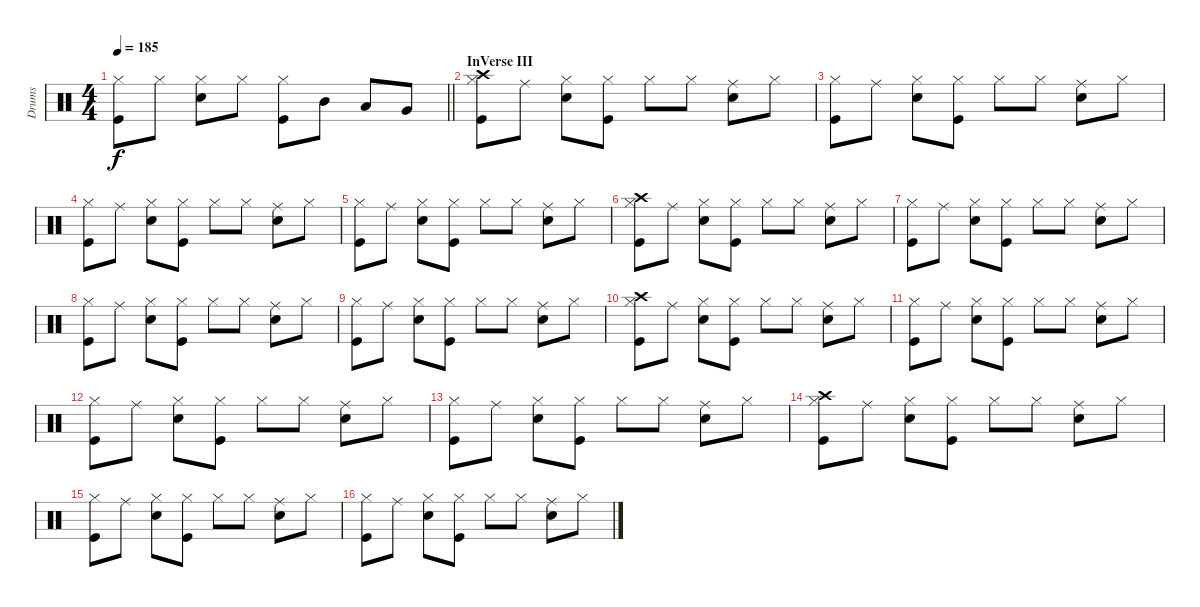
\track ("Drums" "Drums") {instrument percussion}
\staff {score}
\articulation defaults
\ts (4 4)
\tempo 185
\clef neutral
\barLineRight lightlight
\ks c
("Kick (hit)" "Hi-Hat (closed)").8{dy f} "Hi-Hat (closed)".8 ("Snare (hit) 2" "Hi-Hat (closed)").8 "Hi-Hat (closed)".8 ("Kick (hit)" "Hi-Hat (closed)").8 "Mid Tom (hit)".8 "Low Tom (hit)".8 "Very Low Tom (hit)".8 |
\section ("" "InVerse III")
("Kick (hit)" "Crash high (hit)" "Hi-Hat (closed)").8 "Ride (middle)".8 ("Snare (hit) 2" "Hi-Hat (closed)").8 ("Kick (hit)" "Hi-Hat (closed)").8 "Hi-Hat (closed)".8 "Hi-Hat (closed)".8 ("Snare (hit) 2" "Ride (middle)").8 "Hi-Hat (closed)".8 |
("Kick (hit)" "Hi-Hat (closed)").8 "Ride (middle)".8 ("Snare (hit) 2" "Hi-Hat (closed)").8 ("Kick (hit)" "Hi-Hat (closed)").8 "Hi-Hat (closed)".8 "Hi-Hat (closed)".8 ("Snare (hit) 2" "Ride (middle)").8 "Hi-Hat (closed)".8 |
("Kick (hit)" "Hi-Hat (closed)").8 "Ride (middle)".8 ("Snare (hit) 2" "Hi-Hat (closed)").8 ("Kick (hit)" "Hi-Hat (closed)").8 "Hi-Hat (closed)".8 "Hi-Hat (closed)".8 ("Snare (hit) 2" "Ride (middle)").8 "Hi-Hat (closed)".8 |
("Kick (hit)" "Hi-Hat (closed)").8 "Ride (middle)".8 ("Snare (hit) 2" "Hi-Hat (closed)").8 ("Kick (hit)" "Hi-Hat (closed)").8 "Hi-Hat (closed)".8 "Hi-Hat (closed)".8 ("Snare (hit) 2" "Ride (middle)").8 "Hi-Hat (closed)".8 |
("Kick (hit)" "Crash high (hit)" "Hi-Hat (closed)").8 "Ride (middle)".8 ("Snare (hit) 2" "Hi-Hat (closed)").8 ("Kick (hit)" "Hi-Hat (closed)").8 "Hi-Hat (closed)".8 "Hi-Hat (closed)".8 ("Snare (hit) 2" "Ride (middle)").8 "Hi-Hat (closed)".8 |
("Kick (hit)" "Hi-Hat (closed)").8 "Ride (middle)".8 ("Snare (hit) 2" "Hi-Hat (closed)").8 ("Kick (hit)" "Hi-Hat (closed)").8 "Hi-Hat (closed)".8 "Hi-Hat (closed)".8 ("Snare (hit) 2" "Ride (middle)").8 "Hi-Hat (closed)".8 |
("Kick (hit)" "Hi-Hat (closed)").8 "Ride (middle)".8 ("Snare (hit) 2" "Hi-Hat (closed)").8 ("Kick (hit)" "Hi-Hat (closed)").8 "Hi-Hat (closed)".8 "Hi-Hat (closed)".8 ("Snare (hit) 2" "Ride (middle)").8 "Hi-Hat (closed)".8 |
("Kick (hit)" "Hi-Hat (closed)").8 "Ride (middle)".8 ("Snare (hit) 2" "Hi-Hat (closed)").8 ("Kick (hit)" "Hi-Hat (closed)").8 "Hi-Hat (closed)".8 "Hi-Hat (closed)".8 ("Snare (hit) 2" "Ride (middle)").8 "Hi-Hat (closed)".8 |
("Kick (hit)" "Crash high (hit)" "Hi-Hat (closed)").8 "Ride (middle)".8 ("Snare (hit) 2" "Hi-Hat (closed)").8 ("Kick (hit)" "Hi-Hat (closed)").8 "Hi-Hat (closed)".8 "Hi-Hat (closed)".8 ("Snare (hit) 2" "Ride (middle)").8 "Hi-Hat (closed)".8 |
("Kick (hit)" "Hi-Hat (closed)").8 "Ride (middle)".8 ("Snare (hit) 2" "Hi-Hat (closed)").8 ("Kick (hit)" "Hi-Hat (closed)").8 "Hi-Hat (closed)".8 "Hi-Hat (closed)".8 ("Snare (hit) 2" "Ride (middle)").8 "Hi-Hat (closed)".8 |
("Kick (hit)" "Hi-Hat (closed)").8 "Ride (middle)".8 ("Snare (hit) 2" "Hi-Hat (closed)").8 ("Kick (hit)" "Hi-Hat (closed)").8 "Hi-Hat (closed)".8 "Hi-Hat (closed)".8 ("Snare (hit) 2" "Ride (middle)").8 "Hi-Hat (closed)".8 |
("Kick (hit)" "Hi-Hat (closed)").8 "Ride (middle)".8 ("Snare (hit) 2" "Hi-Hat (closed)").8 ("Kick (hit)" "Hi-Hat (closed)").8 "Hi-Hat (closed)".8 "Hi-Hat (closed)".8 ("Snare (hit) 2" "Ride (middle)").8 "Hi-Hat (closed)".8 |
("Kick (hit)" "Crash high (hit)" "Hi-Hat (closed)").8 "Ride (middle)".8 ("Snare (hit) 2" "Hi-Hat (closed)").8 ("Kick (hit)" "Hi-Hat (closed)").8 "Hi-Hat (closed)".8 "Hi-Hat (closed)".8 ("Snare (hit) 2" "Ride (middle)").8 "Hi-Hat (closed)".8 |
("Kick (hit)" "Hi-Hat (closed)").8 "Ride (middle)".8 ("Snare (hit) 2" "Hi-Hat (closed)").8 ("Kick (hit)" "Hi-Hat (closed)").8 "Hi-Hat (closed)".8 "Hi-Hat (closed)".8 ("Snare (hit) 2" "Ride (middle)").8 "Hi-Hat (closed)".8 |
("Kick (hit)" "Hi-Hat (closed)").8 "Ride (middle)".8 ("Snare (hit) 2" "Hi-Hat (closed)").8 ("Kick (hit)" "Hi-Hat (closed)").8 "Hi-Hat (closed)".8 "Hi-Hat (closed)".8 ("Snare (hit) 2" "Ride (middle)").8 "Hi-Hat (closed)".8
